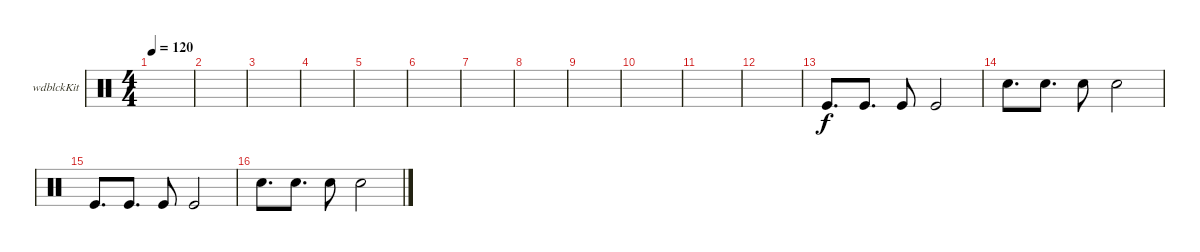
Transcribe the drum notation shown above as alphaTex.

\defaultSystemsLayout 4
\bracketExtendMode groupsimilarinstruments
\firstSystemTrackNameOrientation horizontal
\otherSystemsTrackNameOrientation horizontal
\track ("Woodblock" "wdblckKit") {instrument percussion}
\staff {score}
\articulation defaults
\ts (4 4)
\tempo 120
\clef neutral
\scale
0.333333
\ks c
|
\scale
0.333333 |
\scale
0.333333 |
\scale
0.333333 |
\scale
0.333333 |
\scale
0.333333 |
\scale
0.333333 |
\scale
0.333333 |
\scale
0.333333 |
|
\scale
0.333333 |
\scale
0.333333 |
\scale
0.333333 "Kick (hit)".8{d} "Kick (hit)".8{d} "Kick (hit)".8 "Kick (hit)".2 |
\scale
0.333333 "Snare (hit) 2".8{d} "Snare (hit) 2".8{d} "Snare (hit) 2".8 "Snare (hit) 2".2 |
\scale
0.333333 "Kick (hit)".8{d} "Kick (hit)".8{d} "Kick (hit)".8 "Kick (hit)".2 |
\scale
0.333333 "Snare (hit) 2".8{d} "Snare (hit) 2".8{d} "Snare (hit) 2".8 "Snare (hit) 2".2
